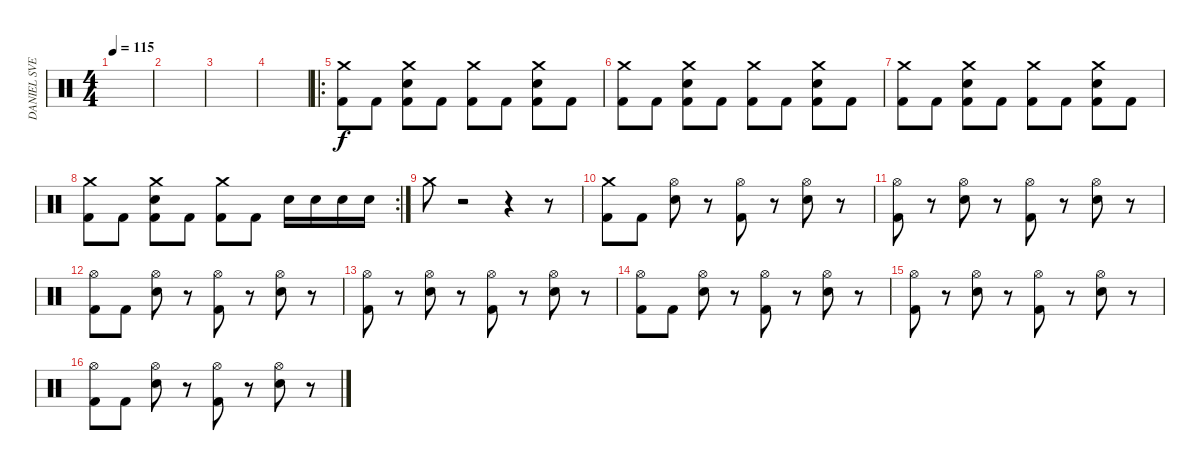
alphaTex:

\track ("DANIEL SVENSSON" "DANIEL SVE") {instrument percussion}
\staff {score}
\articulation defaults
\ts (4 4)
\tempo 115
\clef neutral
\ks c
|
|
|
|
\ro
("Crash medium (hit)" "Kick (hit) 2").8 "Kick (hit) 2".8 ("Crash medium (hit)" "Snare (hit) 2" "Kick (hit) 2").8 "Kick (hit) 2".8 ("Crash medium (hit)" "Kick (hit) 2").8 "Kick (hit) 2".8 ("Crash medium (hit)" "Snare (hit) 2" "Kick (hit) 2").8 "Kick (hit) 2".8 |
("Crash medium (hit)" "Kick (hit) 2").8 "Kick (hit) 2".8 ("Crash medium (hit)" "Snare (hit) 2" "Kick (hit) 2").8 "Kick (hit) 2".8 ("Crash medium (hit)" "Kick (hit) 2").8 "Kick (hit) 2".8 ("Crash medium (hit)" "Snare (hit) 2" "Kick (hit) 2").8 "Kick (hit) 2".8 |
("Crash medium (hit)" "Kick (hit) 2").8 "Kick (hit) 2".8 ("Crash medium (hit)" "Snare (hit) 2" "Kick (hit) 2").8 "Kick (hit) 2".8 ("Crash medium (hit)" "Kick (hit) 2").8 "Kick (hit) 2".8 ("Crash medium (hit)" "Snare (hit) 2" "Kick (hit) 2").8 "Kick (hit) 2".8 |
\rc 2
("Crash medium (hit)" "Kick (hit) 2").8 "Kick (hit) 2".8 ("Crash medium (hit)" "Snare (hit) 2" "Kick (hit) 2").8 "Kick (hit) 2".8 ("Crash medium (hit)" "Kick (hit) 2").8 "Kick (hit) 2".8 "Snare (hit) 2".16 "Snare (hit) 2".16 "Snare (hit) 2".16 "Snare (hit) 2".16 |
"Crash medium (hit)".8 r.2 r.4 r.8 |
("Crash medium (hit)" "Kick (hit) 2").8 "Kick (hit) 2".8 ("Hi-Hat (open)" "Snare (hit) 2").8 r.8 ("Hi-Hat (open)" "Kick (hit) 2").8 r.8 ("Hi-Hat (open)" "Snare (hit) 2").8 r.8 |
("Hi-Hat (open)" "Kick (hit) 2").8 r.8 ("Hi-Hat (open)" "Snare (hit) 2").8 r.8 ("Hi-Hat (open)" "Kick (hit) 2").8 r.8 ("Hi-Hat (open)" "Snare (hit) 2").8 r.8 |
("Hi-Hat (open)" "Kick (hit) 2").8 "Kick (hit) 2".8 ("Hi-Hat (open)" "Snare (hit) 2").8 r.8 ("Hi-Hat (open)" "Kick (hit) 2").8 r.8 ("Hi-Hat (open)" "Snare (hit) 2").8 r.8 |
("Hi-Hat (open)" "Kick (hit) 2").8 r.8 ("Hi-Hat (open)" "Snare (hit) 2").8 r.8 ("Hi-Hat (open)" "Kick (hit) 2").8 r.8 ("Hi-Hat (open)" "Snare (hit) 2").8 r.8 |
("Hi-Hat (open)" "Kick (hit) 2").8 "Kick (hit) 2".8 ("Hi-Hat (open)" "Snare (hit) 2").8 r.8 ("Hi-Hat (open)" "Kick (hit) 2").8 r.8 ("Hi-Hat (open)" "Snare (hit) 2").8 r.8 |
("Hi-Hat (open)" "Kick (hit) 2").8 r.8 ("Hi-Hat (open)" "Snare (hit) 2").8 r.8 ("Hi-Hat (open)" "Kick (hit) 2").8 r.8 ("Hi-Hat (open)" "Snare (hit) 2").8 r.8 |
("Hi-Hat (open)" "Kick (hit) 2").8 "Kick (hit) 2".8 ("Hi-Hat (open)" "Snare (hit) 2").8 r.8 ("Hi-Hat (open)" "Kick (hit) 2").8 r.8 ("Hi-Hat (open)" "Snare (hit) 2").8 r.8
